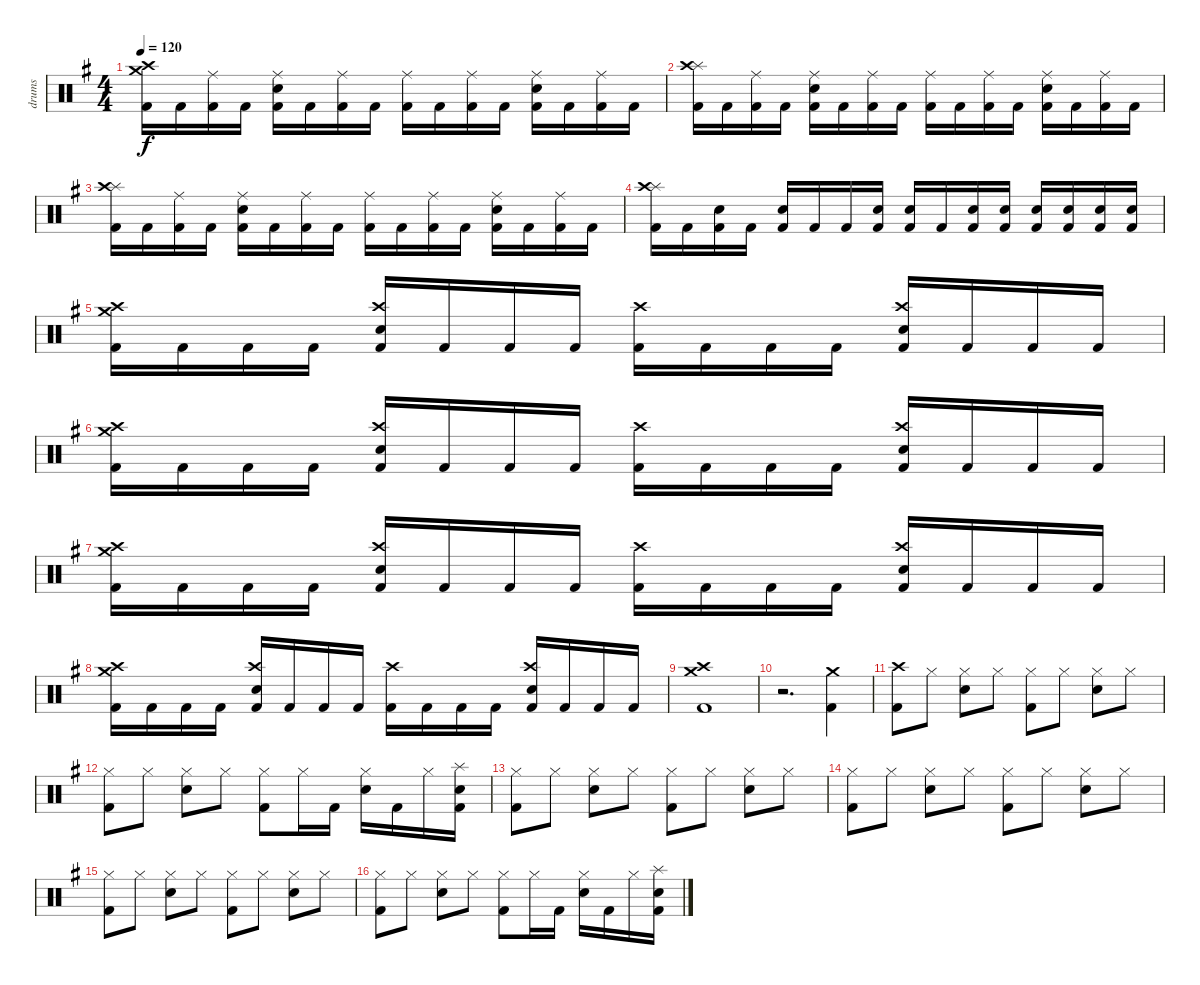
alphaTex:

\track ("drums" "drums") {instrument percussion}
\staff {score}
\articulation defaults
\ts (4 4)
\tempo 120
\clef neutral
\ks eminor
("Kick (hit) 2" "Crash high (hit)" "Crash medium (hit)").16{dy f} "Kick (hit) 2".16 ("Kick (hit) 2" "Ride (middle)").16 "Kick (hit) 2".16 ("Kick (hit) 2" "Electric Snare (hit)" "Ride (middle)").16 "Kick (hit) 2".16 ("Kick (hit) 2" "Ride (middle)").16 "Kick (hit) 2".16 ("Kick (hit) 2" "Ride (middle)").16 "Kick (hit) 2".16 ("Kick (hit) 2" "Ride (middle)").16 "Kick (hit) 2".16 ("Kick (hit) 2" "Electric Snare (hit)" "Ride (middle)").16 "Kick (hit) 2".16 ("Kick (hit) 2" "Ride (middle)").16 "Kick (hit) 2".16 |
("Kick (hit) 2" "Splash (hit)" "Crash high (hit)").16 "Kick (hit) 2".16 ("Kick (hit) 2" "Ride (middle)").16 "Kick (hit) 2".16 ("Kick (hit) 2" "Electric Snare (hit)" "Ride (middle)").16 "Kick (hit) 2".16 ("Kick (hit) 2" "Ride (middle)").16 "Kick (hit) 2".16 ("Kick (hit) 2" "Ride (middle)").16 "Kick (hit) 2".16 ("Kick (hit) 2" "Ride (middle)").16 "Kick (hit) 2".16 ("Kick (hit) 2" "Electric Snare (hit)" "Ride (middle)").16 "Kick (hit) 2".16 ("Kick (hit) 2" "Ride (middle)").16 "Kick (hit) 2".16 |
("Kick (hit) 2" "Splash (hit)" "Crash high (hit)").16 "Kick (hit) 2".16 ("Kick (hit) 2" "Ride (middle)").16 "Kick (hit) 2".16 ("Kick (hit) 2" "Electric Snare (hit)" "Ride (middle)").16 "Kick (hit) 2".16 ("Kick (hit) 2" "Ride (middle)").16 "Kick (hit) 2".16 ("Kick (hit) 2" "Ride (middle)").16 "Kick (hit) 2".16 ("Kick (hit) 2" "Ride (middle)").16 "Kick (hit) 2".16 ("Kick (hit) 2" "Electric Snare (hit)" "Ride (middle)").16 "Kick (hit) 2".16 ("Kick (hit) 2" "Ride (middle)").16 "Kick (hit) 2".16 |
("Kick (hit) 2" "Splash (hit)" "Crash high (hit)").16 "Kick (hit) 2".16 ("Kick (hit) 2" "Electric Snare (hit)").16 "Kick (hit) 2".16 ("Kick (hit) 2" "Electric Snare (hit)").16 "Kick (hit) 2".16 "Kick (hit) 2".16 ("Kick (hit) 2" "Electric Snare (hit)").16 ("Kick (hit) 2" "Electric Snare (hit)").16 "Kick (hit) 2".16 ("Kick (hit) 2" "Electric Snare (hit)").16 ("Kick (hit) 2" "Electric Snare (hit)").16 ("Kick (hit) 2" "Electric Snare (hit)").16 ("Kick (hit) 2" "Electric Snare (hit)").16 ("Kick (hit) 2" "Electric Snare (hit)").16 ("Kick (hit) 2" "Electric Snare (hit)").16 |
("Kick (hit) 2" "Crash high (hit)" "Crash medium (hit)").16 "Kick (hit) 2".16 "Kick (hit) 2".16 "Kick (hit) 2".16 ("Kick (hit) 2" "Electric Snare (hit)" "Crash high (hit)").16 "Kick (hit) 2".16 "Kick (hit) 2".16 "Kick (hit) 2".16 ("Kick (hit) 2" "Crash high (hit)").16 "Kick (hit) 2".16 "Kick (hit) 2".16 "Kick (hit) 2".16 ("Kick (hit) 2" "Electric Snare (hit)" "Crash high (hit)").16 "Kick (hit) 2".16 "Kick (hit) 2".16 "Kick (hit) 2".16 |
("Kick (hit) 2" "Crash high (hit)" "Crash medium (hit)").16 "Kick (hit) 2".16 "Kick (hit) 2".16 "Kick (hit) 2".16 ("Kick (hit) 2" "Electric Snare (hit)" "Crash high (hit)").16 "Kick (hit) 2".16 "Kick (hit) 2".16 "Kick (hit) 2".16 ("Kick (hit) 2" "Crash high (hit)").16 "Kick (hit) 2".16 "Kick (hit) 2".16 "Kick (hit) 2".16 ("Kick (hit) 2" "Electric Snare (hit)" "Crash high (hit)").16 "Kick (hit) 2".16 "Kick (hit) 2".16 "Kick (hit) 2".16 |
("Kick (hit) 2" "Crash high (hit)" "Crash medium (hit)").16 "Kick (hit) 2".16 "Kick (hit) 2".16 "Kick (hit) 2".16 ("Kick (hit) 2" "Electric Snare (hit)" "Crash high (hit)").16 "Kick (hit) 2".16 "Kick (hit) 2".16 "Kick (hit) 2".16 ("Kick (hit) 2" "Crash high (hit)").16 "Kick (hit) 2".16 "Kick (hit) 2".16 "Kick (hit) 2".16 ("Kick (hit) 2" "Electric Snare (hit)" "Crash high (hit)").16 "Kick (hit) 2".16 "Kick (hit) 2".16 "Kick (hit) 2".16 |
("Kick (hit) 2" "Crash high (hit)" "Crash medium (hit)").16 "Kick (hit) 2".16 "Kick (hit) 2".16 "Kick (hit) 2".16 ("Kick (hit) 2" "Electric Snare (hit)" "Crash high (hit)").16 "Kick (hit) 2".16 "Kick (hit) 2".16 "Kick (hit) 2".16 ("Kick (hit) 2" "Crash high (hit)").16 "Kick (hit) 2".16 "Kick (hit) 2".16 "Kick (hit) 2".16 ("Kick (hit) 2" "Electric Snare (hit)" "Crash high (hit)").16 "Kick (hit) 2".16 "Kick (hit) 2".16 "Kick (hit) 2".16 |
("Kick (hit) 2" "Crash high (hit)" "Crash medium (hit)").1 |
r.2{d} ("Kick (hit) 2" "Crash medium (hit)").4 |
("Kick (hit) 2" "Crash high (hit)").8 "Hi-Hat (closed)".8 ("Electric Snare (hit)" "Hi-Hat (closed)").8 "Hi-Hat (closed)".8 ("Kick (hit) 2" "Hi-Hat (closed)").8 "Hi-Hat (closed)".8 ("Electric Snare (hit)" "Hi-Hat (closed)").8 "Hi-Hat (closed)".8 |
("Kick (hit) 2" "Hi-Hat (closed)").8 "Hi-Hat (closed)".8 ("Electric Snare (hit)" "Hi-Hat (closed)").8 "Hi-Hat (closed)".8 ("Kick (hit) 2" "Hi-Hat (closed)").8 "Hi-Hat (closed)".16 "Kick (hit) 2".16 ("Electric Snare (hit)" "Hi-Hat (closed)").16 "Kick (hit) 2".16 "Hi-Hat (closed)".16 ("Kick (hit) 2" "Electric Snare (hit)" "Splash (hit)").16 |
("Kick (hit) 2" "Hi-Hat (closed)").8 "Hi-Hat (closed)".8 ("Electric Snare (hit)" "Hi-Hat (closed)").8 "Hi-Hat (closed)".8 ("Kick (hit) 2" "Hi-Hat (closed)").8 "Hi-Hat (closed)".8 ("Electric Snare (hit)" "Hi-Hat (closed)").8 "Hi-Hat (closed)".8 |
("Kick (hit) 2" "Hi-Hat (closed)").8 "Hi-Hat (closed)".8 ("Electric Snare (hit)" "Hi-Hat (closed)").8 "Hi-Hat (closed)".8 ("Kick (hit) 2" "Hi-Hat (closed)").8 "Hi-Hat (closed)".8 ("Electric Snare (hit)" "Hi-Hat (closed)").8 "Hi-Hat (closed)".8 |
("Kick (hit) 2" "Hi-Hat (closed)").8 "Hi-Hat (closed)".8 ("Electric Snare (hit)" "Hi-Hat (closed)").8 "Hi-Hat (closed)".8 ("Kick (hit) 2" "Hi-Hat (closed)").8 "Hi-Hat (closed)".8 ("Electric Snare (hit)" "Hi-Hat (closed)").8 "Hi-Hat (closed)".8 |
("Kick (hit) 2" "Hi-Hat (closed)").8 "Hi-Hat (closed)".8 ("Electric Snare (hit)" "Hi-Hat (closed)").8 "Hi-Hat (closed)".8 ("Kick (hit) 2" "Hi-Hat (closed)").8 "Hi-Hat (closed)".16 "Kick (hit) 2".16 ("Electric Snare (hit)" "Hi-Hat (closed)").16 "Kick (hit) 2".16 "Hi-Hat (closed)".16 ("Kick (hit) 2" "Electric Snare (hit)" "Splash (hit)").16
